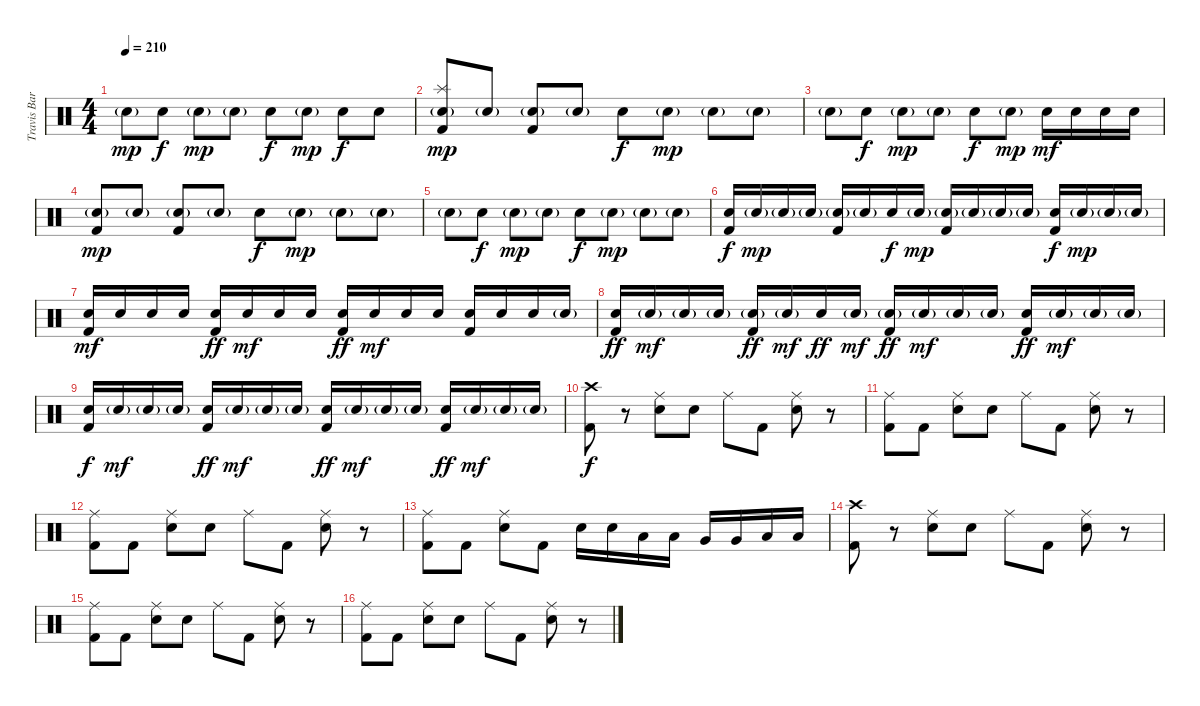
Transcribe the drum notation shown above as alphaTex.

\track ("Travis Barker" "Travis Bar") {instrument percussion}
\staff {score}
\articulation defaults
\ts (4 4)
\tempo 210
\clef neutral
\ks c "Electric Snare (hit)"{g}.8{dy mp} "Electric Snare (hit)".8{dy f} "Electric Snare (hit)"{g}.8{dy mp} "Electric Snare (hit)"{g}.8 "Electric Snare (hit)".8{dy f} "Electric Snare (hit)"{g}.8{dy mp} "Electric Snare (hit)".8{dy f} "Electric Snare (hit)".8
|
("Splash (hit)" "Electric Snare (hit)"{g} "Kick (hit) 2").8{dy mp} "Electric Snare (hit)"{g}.8 ("Electric Snare (hit)"{g} "Kick (hit) 2").8 "Electric Snare (hit)"{g}.8 "Electric Snare (hit)".8{dy f} "Electric Snare (hit)"{g}.8{dy mp} "Electric Snare (hit)"{g}.8 "Electric Snare (hit)"{g}.8 |
"Electric Snare (hit)"{g}.8 "Electric Snare (hit)".8{dy f} "Electric Snare (hit)"{g}.8{dy mp} "Electric Snare (hit)"{g}.8 "Electric Snare (hit)".8{dy f} "Electric Snare (hit)"{g}.8{dy mp} "Electric Snare (hit)".16{dy mf} "Electric Snare (hit)".16 "Electric Snare (hit)".16 "Electric Snare (hit)".16 |
("Electric Snare (hit)"{g} "Kick (hit) 2").8{dy mp} "Electric Snare (hit)"{g}.8 ("Electric Snare (hit)"{g} "Kick (hit) 2").8 "Electric Snare (hit)"{g}.8 "Electric Snare (hit)".8{dy f} "Electric Snare (hit)"{g}.8{dy mp} "Electric Snare (hit)"{g}.8 "Electric Snare (hit)"{g}.8 |
"Electric Snare (hit)"{g}.8 "Electric Snare (hit)".8{dy f} "Electric Snare (hit)"{g}.8{dy mp} "Electric Snare (hit)"{g}.8 "Electric Snare (hit)".8{dy f} "Electric Snare (hit)"{g}.8{dy mp} "Electric Snare (hit)"{g}.8 "Electric Snare (hit)"{g}.8 |
("Electric Snare (hit)" "Kick (hit) 2").16{dy f} "Electric Snare (hit)"{g}.16{dy mp volume 8} "Electric Snare (hit)"{g}.16 "Electric Snare (hit)"{g}.16 ("Electric Snare (hit)"{g} "Kick (hit) 2").16 "Electric Snare (hit)"{g}.16 "Electric Snare (hit)".16{dy f} "Electric Snare (hit)"{g}.16{dy mp} ("Electric Snare (hit)"{g} "Kick (hit) 2").16 "Electric Snare (hit)"{g}.16 "Electric Snare (hit)"{g}.16 "Electric Snare (hit)"{g}.16 ("Electric Snare (hit)" "Kick (hit) 2").16{dy f} "Electric Snare (hit)"{g}.16{dy mp} "Electric Snare (hit)"{g}.16 "Electric Snare (hit)"{g}.16 |
("Electric Snare (hit)" "Kick (hit) 2").16{dy mf} "Electric Snare (hit)".16 "Electric Snare (hit)".16 "Electric Snare (hit)".16 ("Electric Snare (hit)" "Kick (hit) 2").16{dy ff} "Electric Snare (hit)".16{dy mf} "Electric Snare (hit)".16 "Electric Snare (hit)".16 ("Electric Snare (hit)" "Kick (hit) 2").16{dy ff} "Electric Snare (hit)".16{dy mf} "Electric Snare (hit)".16 "Electric Snare (hit)".16 ("Electric Snare (hit)" "Kick (hit) 2").16 "Electric Snare (hit)".16 "Electric Snare (hit)".16 "Electric Snare (hit)"{g}.16 |
("Electric Snare (hit)" "Kick (hit) 2").16{dy ff} "Electric Snare (hit)"{g}.16{dy mf volume 8} "Electric Snare (hit)"{g}.16 "Electric Snare (hit)"{g}.16 ("Electric Snare (hit)"{g} "Kick (hit) 2").16{dy ff} "Electric Snare (hit)"{g}.16{dy mf} "Electric Snare (hit)".16{dy ff} "Electric Snare (hit)"{g}.16{dy mf} ("Electric Snare (hit)"{g} "Kick (hit) 2").16{dy ff} "Electric Snare (hit)"{g}.16{dy mf} "Electric Snare (hit)"{g}.16 "Electric Snare (hit)"{g}.16 ("Electric Snare (hit)" "Kick (hit) 2").16{dy ff} "Electric Snare (hit)"{g}.16{dy mf} "Electric Snare (hit)"{g}.16 "Electric Snare (hit)"{g}.16 |
("Electric Snare (hit)" "Kick (hit) 2").16{dy f volume 13} "Electric Snare (hit)"{g}.16{dy mf} "Electric Snare (hit)"{g}.16 "Electric Snare (hit)"{g}.16 ("Electric Snare (hit)" "Kick (hit) 2").16{dy ff} "Electric Snare (hit)"{g}.16{dy mf} "Electric Snare (hit)"{g}.16 "Electric Snare (hit)"{g}.16 ("Electric Snare (hit)" "Kick (hit) 2").16{dy ff} "Electric Snare (hit)"{g}.16{dy mf} "Electric Snare (hit)"{g}.16 "Electric Snare (hit)"{g}.16 ("Electric Snare (hit)" "Kick (hit) 2").16{dy ff} "Electric Snare (hit)"{g}.16{dy mf} "Electric Snare (hit)"{g}.16 "Electric Snare (hit)"{g}.16 |
("Crash high (hit)" "Kick (hit) 2").8{dy f} r.8 ("Ride (middle)" "Electric Snare (hit)").8 "Electric Snare (hit)".8 "Ride (middle)".8 "Kick (hit) 2".8 ("Ride (middle)" "Electric Snare (hit)").8 r.8 |
("Ride (middle)" "Kick (hit) 2").8 "Kick (hit) 2".8 ("Ride (middle)" "Electric Snare (hit)").8 "Electric Snare (hit)".8 "Ride (middle)".8 "Kick (hit) 2".8 ("Ride (middle)" "Electric Snare (hit)").8 r.8 |
("Ride (middle)" "Kick (hit) 2").8 "Kick (hit) 2".8 ("Ride (middle)" "Electric Snare (hit)").8 "Electric Snare (hit)".8 "Ride (middle)".8 "Kick (hit) 2".8 ("Ride (middle)" "Electric Snare (hit)").8 r.8 |
("Ride (middle)" "Kick (hit) 2").8 "Kick (hit) 2".8 ("Ride (middle)" "Electric Snare (hit)").8 "Kick (hit) 2".8 "Electric Snare (hit)".16 "Electric Snare (hit)".16 "Low Tom (hit)".16 "Low Tom (hit)".16 "Very Low Tom (hit)".16 "Very Low Tom (hit)".16 "Low Floor Tom (hit)".16 "Low Floor Tom (hit)".16 |
("Crash high (hit)" "Kick (hit) 2").8 r.8 ("Ride (middle)" "Electric Snare (hit)").8 "Electric Snare (hit)".8 "Ride (middle)".8 "Kick (hit) 2".8 ("Ride (middle)" "Electric Snare (hit)").8 r.8 |
("Ride (middle)" "Kick (hit) 2").8 "Kick (hit) 2".8 ("Ride (middle)" "Electric Snare (hit)").8 "Electric Snare (hit)".8 "Ride (middle)".8 "Kick (hit) 2".8 ("Ride (middle)" "Electric Snare (hit)").8 r.8 |
("Ride (middle)" "Kick (hit) 2").8 "Kick (hit) 2".8 ("Ride (middle)" "Electric Snare (hit)").8 "Electric Snare (hit)".8 "Ride (middle)".8 "Kick (hit) 2".8 ("Ride (middle)" "Electric Snare (hit)").8 r.8
